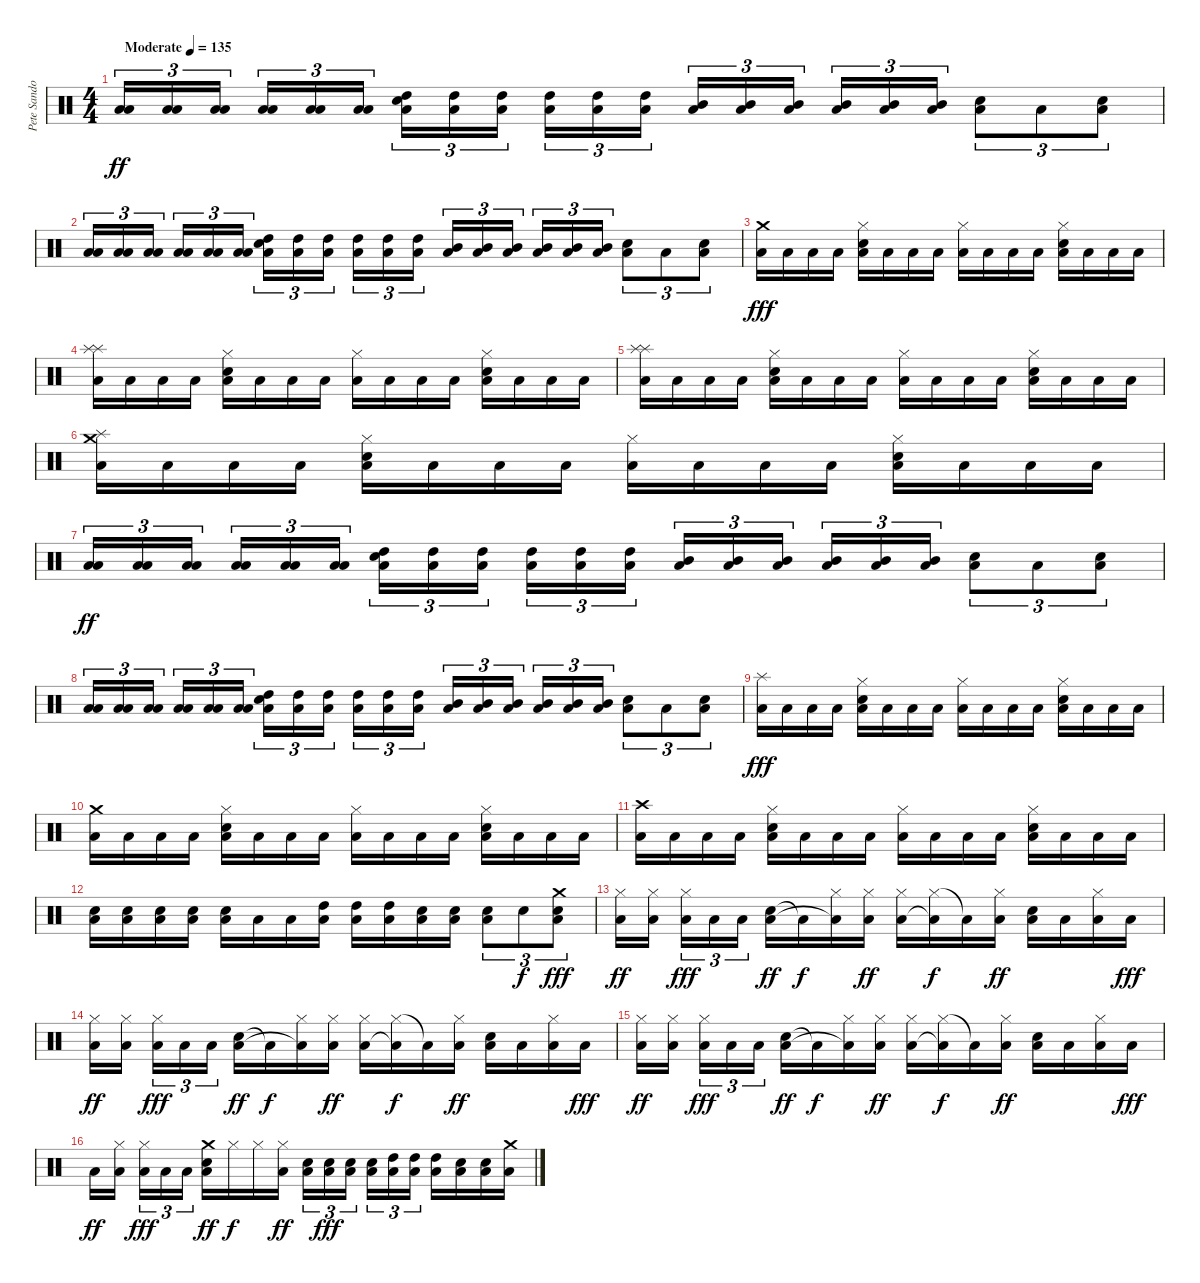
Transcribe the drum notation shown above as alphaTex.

\track ("Pete Sandoval" "Pete Sando") {instrument percussion}
\staff {score}
\articulation defaults
\ts (4 4)
\tempo (135 "Moderate")
\clef neutral
\ks c
("Low Tom (hit)" "Low Floor Tom (hit)").16{tu (3 2) dy ff} ("Low Tom (hit)" "Low Floor Tom (hit)").16{tu (3 2)} ("Low Tom (hit)" "Low Floor Tom (hit)").16{tu (3 2) beam splitsecondary} ("Low Tom (hit)" "Low Floor Tom (hit)").16{tu (3 2)} ("Low Tom (hit)" "Low Floor Tom (hit)").16{tu (3 2)} ("Low Tom (hit)" "Low Floor Tom (hit)").16{tu (3 2)} ("Electric Snare (hit)" "High Tom (hit)" "Low Floor Tom (hit)").16{tu (3 2)} ("High Tom (hit)" "Low Floor Tom (hit)").16{tu (3 2)} ("High Tom (hit)" "Low Floor Tom (hit)").16{tu (3 2) beam splitsecondary} ("High Tom (hit)" "Low Floor Tom (hit)").16{tu (3 2)} ("High Tom (hit)" "Low Floor Tom (hit)").16{tu (3 2)} ("High Tom (hit)" "Low Floor Tom (hit)").16{tu (3 2)} ("Mid Tom (hit)" "Low Floor Tom (hit)").16{tu (3 2)} ("Mid Tom (hit)" "Low Floor Tom (hit)").16{tu (3 2)} ("Mid Tom (hit)" "Low Floor Tom (hit)").16{tu (3 2) beam splitsecondary} ("Mid Tom (hit)" "Low Floor Tom (hit)").16{tu (3 2)} ("Mid Tom (hit)" "Low Floor Tom (hit)").16{tu (3 2)} ("Mid Tom (hit)" "Low Floor Tom (hit)").16{tu (3 2)} ("Electric Snare (hit)" "Low Floor Tom (hit)").8{tu (3 2)} "Low Floor Tom (hit)".8{tu (3 2)} ("Electric Snare (hit)" "Low Floor Tom (hit)").8{tu (3 2)} |
("Low Tom (hit)" "Low Floor Tom (hit)").16{tu (3 2)} ("Low Tom (hit)" "Low Floor Tom (hit)").16{tu (3 2)} ("Low Tom (hit)" "Low Floor Tom (hit)").16{tu (3 2) beam splitsecondary} ("Low Tom (hit)" "Low Floor Tom (hit)").16{tu (3 2)} ("Low Tom (hit)" "Low Floor Tom (hit)").16{tu (3 2)} ("Low Tom (hit)" "Low Floor Tom (hit)").16{tu (3 2)} ("Electric Snare (hit)" "High Tom (hit)" "Low Floor Tom (hit)").16{tu (3 2)} ("High Tom (hit)" "Low Floor Tom (hit)").16{tu (3 2)} ("High Tom (hit)" "Low Floor Tom (hit)").16{tu (3 2) beam splitsecondary} ("High Tom (hit)" "Low Floor Tom (hit)").16{tu (3 2)} ("High Tom (hit)" "Low Floor Tom (hit)").16{tu (3 2)} ("High Tom (hit)" "Low Floor Tom (hit)").16{tu (3 2)} ("Mid Tom (hit)" "Low Floor Tom (hit)").16{tu (3 2)} ("Mid Tom (hit)" "Low Floor Tom (hit)").16{tu (3 2)} ("Mid Tom (hit)" "Low Floor Tom (hit)").16{tu (3 2) beam splitsecondary} ("Mid Tom (hit)" "Low Floor Tom (hit)").16{tu (3 2)} ("Mid Tom (hit)" "Low Floor Tom (hit)").16{tu (3 2)} ("Mid Tom (hit)" "Low Floor Tom (hit)").16{tu (3 2)} ("Electric Snare (hit)" "Low Floor Tom (hit)").8{tu (3 2)} "Low Floor Tom (hit)".8{tu (3 2)} ("Electric Snare (hit)" "Low Floor Tom (hit)").8{tu (3 2)} |
("Crash medium (hit)" "Low Floor Tom (hit)").16{dy fff} "Low Floor Tom (hit)".16 "Low Floor Tom (hit)".16 "Low Floor Tom (hit)".16 ("Electric Snare (hit)" "Hi-Hat (closed)" "Low Floor Tom (hit)").16 "Low Floor Tom (hit)".16 "Low Floor Tom (hit)".16 "Low Floor Tom (hit)".16 ("Hi-Hat (closed)" "Low Floor Tom (hit)").16 "Low Floor Tom (hit)".16 "Low Floor Tom (hit)".16 "Low Floor Tom (hit)".16 ("Electric Snare (hit)" "Hi-Hat (closed)" "Low Floor Tom (hit)").16 "Low Floor Tom (hit)".16 "Low Floor Tom (hit)".16 "Low Floor Tom (hit)".16 |
("Splash (hit)" "Splash (hit)" "Low Floor Tom (hit)").16 "Low Floor Tom (hit)".16 "Low Floor Tom (hit)".16 "Low Floor Tom (hit)".16 ("Electric Snare (hit)" "Hi-Hat (closed)" "Low Floor Tom (hit)").16 "Low Floor Tom (hit)".16 "Low Floor Tom (hit)".16 "Low Floor Tom (hit)".16 ("Hi-Hat (closed)" "Low Floor Tom (hit)").16 "Low Floor Tom (hit)".16 "Low Floor Tom (hit)".16 "Low Floor Tom (hit)".16 ("Electric Snare (hit)" "Hi-Hat (closed)" "Low Floor Tom (hit)").16 "Low Floor Tom (hit)".16 "Low Floor Tom (hit)".16 "Low Floor Tom (hit)".16 |
("Splash (hit)" "Splash (hit)" "Low Floor Tom (hit)").16 "Low Floor Tom (hit)".16 "Low Floor Tom (hit)".16 "Low Floor Tom (hit)".16 ("Electric Snare (hit)" "Hi-Hat (closed)" "Low Floor Tom (hit)").16 "Low Floor Tom (hit)".16 "Low Floor Tom (hit)".16 "Low Floor Tom (hit)".16 ("Hi-Hat (closed)" "Low Floor Tom (hit)").16 "Low Floor Tom (hit)".16 "Low Floor Tom (hit)".16 "Low Floor Tom (hit)".16 ("Electric Snare (hit)" "Hi-Hat (closed)" "Low Floor Tom (hit)").16 "Low Floor Tom (hit)".16 "Low Floor Tom (hit)".16 "Low Floor Tom (hit)".16 |
("Crash medium (hit)" "Splash (hit)" "Low Floor Tom (hit)").16 "Low Floor Tom (hit)".16 "Low Floor Tom (hit)".16 "Low Floor Tom (hit)".16 ("Electric Snare (hit)" "Hi-Hat (closed)" "Low Floor Tom (hit)").16 "Low Floor Tom (hit)".16 "Low Floor Tom (hit)".16 "Low Floor Tom (hit)".16 ("Hi-Hat (closed)" "Low Floor Tom (hit)").16 "Low Floor Tom (hit)".16 "Low Floor Tom (hit)".16 "Low Floor Tom (hit)".16 ("Electric Snare (hit)" "Hi-Hat (closed)" "Low Floor Tom (hit)").16 "Low Floor Tom (hit)".16 "Low Floor Tom (hit)".16 "Low Floor Tom (hit)".16 |
("Low Tom (hit)" "Low Floor Tom (hit)").16{tu (3 2) dy ff} ("Low Tom (hit)" "Low Floor Tom (hit)").16{tu (3 2)} ("Low Tom (hit)" "Low Floor Tom (hit)").16{tu (3 2) beam splitsecondary} ("Low Tom (hit)" "Low Floor Tom (hit)").16{tu (3 2)} ("Low Tom (hit)" "Low Floor Tom (hit)").16{tu (3 2)} ("Low Tom (hit)" "Low Floor Tom (hit)").16{tu (3 2)} ("Electric Snare (hit)" "High Tom (hit)" "Low Floor Tom (hit)").16{tu (3 2)} ("High Tom (hit)" "Low Floor Tom (hit)").16{tu (3 2)} ("High Tom (hit)" "Low Floor Tom (hit)").16{tu (3 2) beam splitsecondary} ("High Tom (hit)" "Low Floor Tom (hit)").16{tu (3 2)} ("High Tom (hit)" "Low Floor Tom (hit)").16{tu (3 2)} ("High Tom (hit)" "Low Floor Tom (hit)").16{tu (3 2)} ("Mid Tom (hit)" "Low Floor Tom (hit)").16{tu (3 2)} ("Mid Tom (hit)" "Low Floor Tom (hit)").16{tu (3 2)} ("Mid Tom (hit)" "Low Floor Tom (hit)").16{tu (3 2) beam splitsecondary} ("Mid Tom (hit)" "Low Floor Tom (hit)").16{tu (3 2)} ("Mid Tom (hit)" "Low Floor Tom (hit)").16{tu (3 2)} ("Mid Tom (hit)" "Low Floor Tom (hit)").16{tu (3 2)} ("Electric Snare (hit)" "Low Floor Tom (hit)").8{tu (3 2)} "Low Floor Tom (hit)".8{tu (3 2)} ("Electric Snare (hit)" "Low Floor Tom (hit)").8{tu (3 2)} |
("Low Tom (hit)" "Low Floor Tom (hit)").16{tu (3 2)} ("Low Tom (hit)" "Low Floor Tom (hit)").16{tu (3 2)} ("Low Tom (hit)" "Low Floor Tom (hit)").16{tu (3 2) beam splitsecondary} ("Low Tom (hit)" "Low Floor Tom (hit)").16{tu (3 2)} ("Low Tom (hit)" "Low Floor Tom (hit)").16{tu (3 2)} ("Low Tom (hit)" "Low Floor Tom (hit)").16{tu (3 2)} ("Electric Snare (hit)" "High Tom (hit)" "Low Floor Tom (hit)").16{tu (3 2)} ("High Tom (hit)" "Low Floor Tom (hit)").16{tu (3 2)} ("High Tom (hit)" "Low Floor Tom (hit)").16{tu (3 2) beam splitsecondary} ("High Tom (hit)" "Low Floor Tom (hit)").16{tu (3 2)} ("High Tom (hit)" "Low Floor Tom (hit)").16{tu (3 2)} ("High Tom (hit)" "Low Floor Tom (hit)").16{tu (3 2)} ("Mid Tom (hit)" "Low Floor Tom (hit)").16{tu (3 2)} ("Mid Tom (hit)" "Low Floor Tom (hit)").16{tu (3 2)} ("Mid Tom (hit)" "Low Floor Tom (hit)").16{tu (3 2) beam splitsecondary} ("Mid Tom (hit)" "Low Floor Tom (hit)").16{tu (3 2)} ("Mid Tom (hit)" "Low Floor Tom (hit)").16{tu (3 2)} ("Mid Tom (hit)" "Low Floor Tom (hit)").16{tu (3 2)} ("Electric Snare (hit)" "Low Floor Tom (hit)").8{tu (3 2)} "Low Floor Tom (hit)".8{tu (3 2)} ("Electric Snare (hit)" "Low Floor Tom (hit)").8{tu (3 2)} |
("Splash (hit)" "Low Floor Tom (hit)").16{dy fff} "Low Floor Tom (hit)".16 "Low Floor Tom (hit)".16 "Low Floor Tom (hit)".16 ("Electric Snare (hit)" "Hi-Hat (closed)" "Low Floor Tom (hit)").16 "Low Floor Tom (hit)".16 "Low Floor Tom (hit)".16 "Low Floor Tom (hit)".16 ("Hi-Hat (closed)" "Low Floor Tom (hit)").16 "Low Floor Tom (hit)".16 "Low Floor Tom (hit)".16 "Low Floor Tom (hit)".16 ("Electric Snare (hit)" "Hi-Hat (closed)" "Low Floor Tom (hit)").16 "Low Floor Tom (hit)".16 "Low Floor Tom (hit)".16 "Low Floor Tom (hit)".16 |
("Crash medium (hit)" "Low Floor Tom (hit)").16 "Low Floor Tom (hit)".16 "Low Floor Tom (hit)".16 "Low Floor Tom (hit)".16 ("Electric Snare (hit)" "Hi-Hat (closed)" "Low Floor Tom (hit)").16 "Low Floor Tom (hit)".16 "Low Floor Tom (hit)".16 "Low Floor Tom (hit)".16 ("Hi-Hat (closed)" "Low Floor Tom (hit)").16 "Low Floor Tom (hit)".16 "Low Floor Tom (hit)".16 "Low Floor Tom (hit)".16 ("Electric Snare (hit)" "Hi-Hat (closed)" "Low Floor Tom (hit)").16 "Low Floor Tom (hit)".16 "Low Floor Tom (hit)".16 "Low Floor Tom (hit)".16 |
("Crash high (hit)" "Low Floor Tom (hit)").16 "Low Floor Tom (hit)".16 "Low Floor Tom (hit)".16 "Low Floor Tom (hit)".16 ("Electric Snare (hit)" "Hi-Hat (closed)" "Low Floor Tom (hit)").16 "Low Floor Tom (hit)".16 "Low Floor Tom (hit)".16 "Low Floor Tom (hit)".16 ("Hi-Hat (closed)" "Low Floor Tom (hit)").16 "Low Floor Tom (hit)".16 "Low Floor Tom (hit)".16 "Low Floor Tom (hit)".16 ("Electric Snare (hit)" "Hi-Hat (closed)" "Low Floor Tom (hit)").16 "Low Floor Tom (hit)".16 "Low Floor Tom (hit)".16 "Low Floor Tom (hit)".16 |
("Electric Snare (hit)" "Low Floor Tom (hit)").16 ("Electric Snare (hit)" "Low Floor Tom (hit)").16 ("Electric Snare (hit)" "Low Floor Tom (hit)").16 ("Electric Snare (hit)" "Low Floor Tom (hit)").16 ("Electric Snare (hit)" "Low Floor Tom (hit)").16 "Low Floor Tom (hit)".16 "Low Floor Tom (hit)".16 ("High Tom (hit)" "Low Floor Tom (hit)").16 ("High Tom (hit)" "Low Floor Tom (hit)").16 ("High Tom (hit)" "Low Floor Tom (hit)").16 ("Electric Snare (hit)" "Low Floor Tom (hit)").16 ("Electric Snare (hit)" "Low Floor Tom (hit)").16 ("Electric Snare (hit)" "Low Floor Tom (hit)").8{tu (3 2)} "Electric Snare (hit)".8{tu (3 2) dy f} ("Crash medium (hit)" "Electric Snare (hit)" "Low Floor Tom (hit)").8{tu (3 2) dy fff} |
("Hi-Hat (closed)" "Low Floor Tom (hit)").16{dy ff} ("Hi-Hat (closed)" "Low Floor Tom (hit)").16{beam splitsecondary} ("Hi-Hat (closed)" "Low Floor Tom (hit)").16{tu (3 2) dy fff} "Low Floor Tom (hit)".16{tu (3 2)} "Low Floor Tom (hit)".16{tu (3 2)} ("Electric Snare (hit)" "Low Floor Tom (hit)").16{dy ff} "Low Floor Tom (hit)"{t}.16{dy f} ("Hi-Hat (closed)" "Low Floor Tom (hit)"{t}).16 ("Hi-Hat (closed)" "Low Floor Tom (hit)").16{dy ff} ("Hi-Hat (closed)" "Low Floor Tom (hit)").16 ("Hi-Hat (closed)" "Low Floor Tom (hit)"{t}).16{dy f} "Low Floor Tom (hit)"{t}.16 ("Hi-Hat (closed)" "Low Floor Tom (hit)").16{dy ff} ("Electric Snare (hit)" "Low Floor Tom (hit)").16 "Low Floor Tom (hit)".16 ("Hi-Hat (closed)" "Low Floor Tom (hit)").16 "Low Floor Tom (hit)".16{dy fff} |
("Hi-Hat (closed)" "Low Floor Tom (hit)").16{dy ff} ("Hi-Hat (closed)" "Low Floor Tom (hit)").16{beam splitsecondary} ("Hi-Hat (closed)" "Low Floor Tom (hit)").16{tu (3 2) dy fff} "Low Floor Tom (hit)".16{tu (3 2)} "Low Floor Tom (hit)".16{tu (3 2)} ("Electric Snare (hit)" "Low Floor Tom (hit)").16{dy ff} "Low Floor Tom (hit)"{t}.16{dy f} ("Hi-Hat (closed)" "Low Floor Tom (hit)"{t}).16 ("Hi-Hat (closed)" "Low Floor Tom (hit)").16{dy ff} ("Hi-Hat (closed)" "Low Floor Tom (hit)").16 ("Hi-Hat (closed)" "Low Floor Tom (hit)"{t}).16{dy f} "Low Floor Tom (hit)"{t}.16 ("Hi-Hat (closed)" "Low Floor Tom (hit)").16{dy ff} ("Electric Snare (hit)" "Low Floor Tom (hit)").16 "Low Floor Tom (hit)".16 ("Hi-Hat (closed)" "Low Floor Tom (hit)").16 "Low Floor Tom (hit)".16{dy fff} |
("Hi-Hat (closed)" "Low Floor Tom (hit)").16{dy ff} ("Hi-Hat (closed)" "Low Floor Tom (hit)").16{beam splitsecondary} ("Hi-Hat (closed)" "Low Floor Tom (hit)").16{tu (3 2) dy fff} "Low Floor Tom (hit)".16{tu (3 2)} "Low Floor Tom (hit)".16{tu (3 2)} ("Electric Snare (hit)" "Low Floor Tom (hit)").16{dy ff} "Low Floor Tom (hit)"{t}.16{dy f} ("Hi-Hat (closed)" "Low Floor Tom (hit)"{t}).16 ("Hi-Hat (closed)" "Low Floor Tom (hit)").16{dy ff} ("Hi-Hat (closed)" "Low Floor Tom (hit)").16 ("Hi-Hat (closed)" "Low Floor Tom (hit)"{t}).16{dy f} "Low Floor Tom (hit)"{t}.16 ("Hi-Hat (closed)" "Low Floor Tom (hit)").16{dy ff} ("Electric Snare (hit)" "Low Floor Tom (hit)").16 "Low Floor Tom (hit)".16 ("Hi-Hat (closed)" "Low Floor Tom (hit)").16 "Low Floor Tom (hit)".16{dy fff} |
"Low Floor Tom (hit)".16{dy ff} ("Hi-Hat (closed)" "Low Floor Tom (hit)").16{beam splitsecondary} ("Hi-Hat (closed)" "Low Floor Tom (hit)").16{tu (3 2) dy fff} "Low Floor Tom (hit)".16{tu (3 2)} "Low Floor Tom (hit)".16{tu (3 2)} ("Electric Snare (hit)" "Crash medium (hit)" "Low Floor Tom (hit)").16{dy ff} "Hi-Hat (closed)".16{dy f} "Hi-Hat (closed)".16 ("Hi-Hat (closed)" "Low Floor Tom (hit)").16{dy ff} ("Electric Snare (hit)" "Low Floor Tom (hit)").16{tu (3 2)} ("Electric Snare (hit)" "Low Floor Tom (hit)").16{tu (3 2) dy fff} ("Electric Snare (hit)" "Low Floor Tom (hit)").16{tu (3 2) beam splitsecondary} ("Electric Snare (hit)" "Low Floor Tom (hit)").16{tu (3 2)} ("High Tom (hit)" "Low Floor Tom (hit)").16{tu (3 2)} ("High Tom (hit)" "Low Floor Tom (hit)").16{tu (3 2)} ("High Tom (hit)" "Low Floor Tom (hit)").16 ("Electric Snare (hit)" "Low Floor Tom (hit)").16 ("Electric Snare (hit)" "Low Floor Tom (hit)").16 ("Crash medium (hit)" "Low Floor Tom (hit)").16
